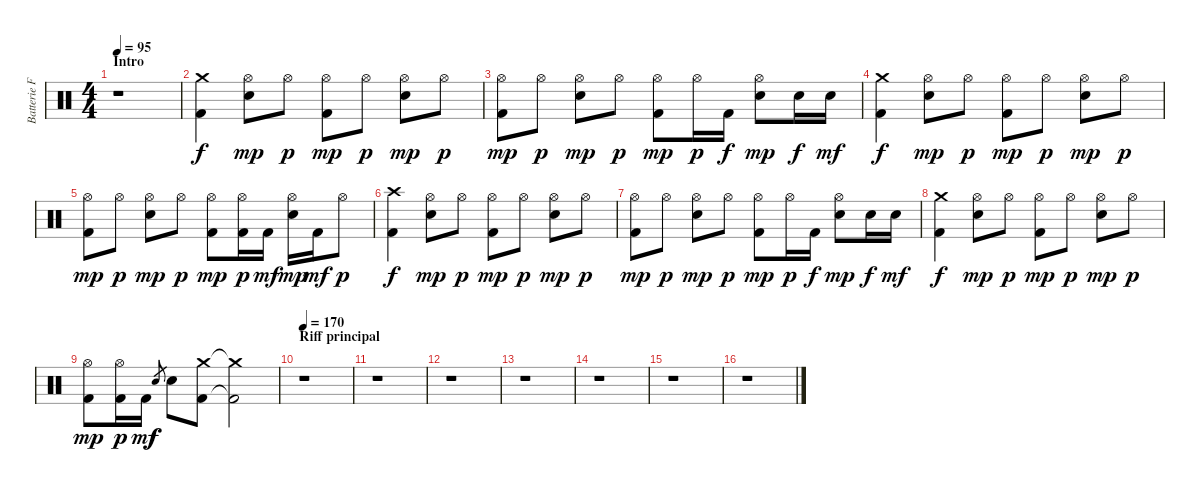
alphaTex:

\track ("Batterie Franck" "Batterie F") {instrument percussion}
\staff {score}
\articulation defaults
\ts (4 4)
\section ("" "Intro")
\tempo 95
\clef neutral
\ks c
r.1{dy f} |
("Crash medium (hit)" "Kick (hit) 2").4 ("Hi-Hat (open)" "Snare (hit) 2").8{dy mp} "Hi-Hat (open)".8{dy p} ("Hi-Hat (open)" "Kick (hit) 2").8{dy mp} "Hi-Hat (open)".8{dy p} ("Hi-Hat (open)" "Snare (hit) 2").8{dy mp} "Hi-Hat (open)".8{dy p} |
("Hi-Hat (open)" "Kick (hit) 2").8{dy mp} "Hi-Hat (open)".8{dy p} ("Hi-Hat (open)" "Snare (hit) 2").8{dy mp} "Hi-Hat (open)".8{dy p} ("Hi-Hat (open)" "Kick (hit) 2").8{dy mp} "Hi-Hat (open)".16{dy p} "Kick (hit) 2".16{dy f} ("Hi-Hat (open)" "Snare (hit) 2").8{dy mp} "Snare (hit) 2".16{dy f} "Snare (hit) 2".16{dy mf} |
("Crash medium (hit)" "Kick (hit) 2").4{dy f} ("Hi-Hat (open)" "Snare (hit) 2").8{dy mp} "Hi-Hat (open)".8{dy p} ("Hi-Hat (open)" "Kick (hit) 2").8{dy mp} "Hi-Hat (open)".8{dy p} ("Hi-Hat (open)" "Snare (hit) 2").8{dy mp} "Hi-Hat (open)".8{dy p} |
("Hi-Hat (open)" "Kick (hit) 2").8{dy mp} "Hi-Hat (open)".8{dy p} ("Hi-Hat (open)" "Snare (hit) 2").8{dy mp} "Hi-Hat (open)".8{dy p} ("Hi-Hat (open)" "Kick (hit) 2").8{dy mp} ("Hi-Hat (open)" "Kick (hit) 2").16{dy p} "Kick (hit) 2".16{dy mf} ("Hi-Hat (open)" "Snare (hit) 2").16{dy mp} "Kick (hit) 2".16{dy mf} "Hi-Hat (open)".8{dy p} |
("Crash high (hit)" "Kick (hit) 2").4{dy f} ("Hi-Hat (open)" "Snare (hit) 2").8{dy mp} "Hi-Hat (open)".8{dy p} ("Hi-Hat (open)" "Kick (hit) 2").8{dy mp} "Hi-Hat (open)".8{dy p} ("Hi-Hat (open)" "Snare (hit) 2").8{dy mp} "Hi-Hat (open)".8{dy p} |
("Hi-Hat (open)" "Kick (hit) 2").8{dy mp} "Hi-Hat (open)".8{dy p} ("Hi-Hat (open)" "Snare (hit) 2").8{dy mp} "Hi-Hat (open)".8{dy p} ("Hi-Hat (open)" "Kick (hit) 2").8{dy mp} "Hi-Hat (open)".16{dy p} "Kick (hit) 2".16{dy f} ("Hi-Hat (open)" "Snare (hit) 2").8{dy mp} "Snare (hit) 2".16{dy f} "Snare (hit) 2".16{dy mf} |
("Crash medium (hit)" "Kick (hit) 2").4{dy f} ("Hi-Hat (open)" "Snare (hit) 2").8{dy mp} "Hi-Hat (open)".8{dy p} ("Hi-Hat (open)" "Kick (hit) 2").8{dy mp} "Hi-Hat (open)".8{dy p} ("Hi-Hat (open)" "Snare (hit) 2").8{dy mp} "Hi-Hat (open)".8{dy p} |
("Hi-Hat (open)" "Kick (hit) 2").8{dy mp} ("Hi-Hat (open)" "Kick (hit) 2").16{dy p} "Kick (hit) 2".16{dy mf} "Snare (hit) 2".8{gr dy f} "Snare (hit) 2".8 ("Crash medium (hit)" "Kick (hit) 2").8 ("Crash medium (hit)"{t} "Kick (hit) 2"{t}).2 |
\section ("" "Riff principal")
\tempo 170
r.1 |
r.1 |
r.1 |
r.1 |
r.1 |
r.1 |
r.1
